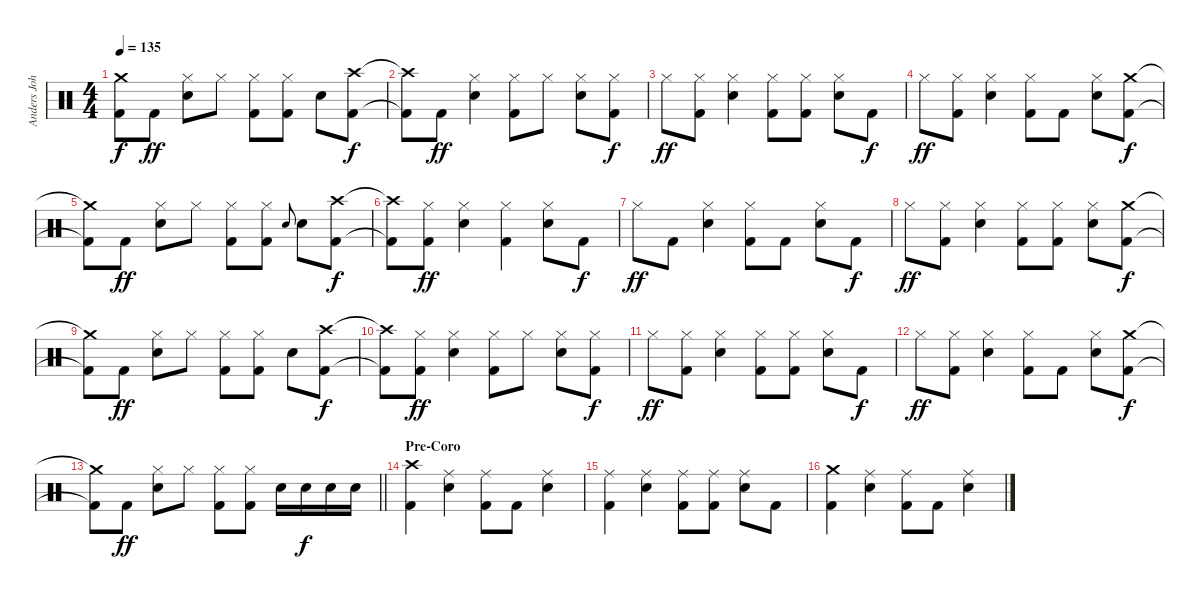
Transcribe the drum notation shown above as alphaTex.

\track ("Anders Johansson" "Anders Joh") {instrument percussion}
\staff {score}
\articulation defaults
\ts (4 4)
\tempo 135
\clef neutral
\ks c
("Crash medium (hit)"{t} "Kick (hit) 2"{t}).8{dy f} "Kick (hit) 2".8{dy ff} ("Hi-Hat (closed)" "Snare (hit) 2").8 "Hi-Hat (closed)".8 ("Hi-Hat (closed)" "Kick (hit) 2").8 ("Hi-Hat (closed)" "Kick (hit) 2").8 "Snare (hit) 2".8 ("Crash high (hit)" "Kick (hit) 2").8{dy f} |
("Crash high (hit)"{t} "Kick (hit) 2"{t}).8 "Kick (hit) 2".8{dy ff} ("Hi-Hat (closed)" "Snare (hit) 2").4 ("Hi-Hat (closed)" "Kick (hit) 2").8 "Hi-Hat (closed)".8 ("Hi-Hat (closed)" "Snare (hit) 2").8 ("Hi-Hat (closed)" "Kick (hit) 2").8{dy f} |
"Hi-Hat (closed)".8{dy ff} ("Hi-Hat (closed)" "Kick (hit) 2").8 ("Hi-Hat (closed)" "Snare (hit) 2").4 ("Hi-Hat (closed)" "Kick (hit) 2").8 ("Hi-Hat (closed)" "Kick (hit) 2").8 ("Hi-Hat (closed)" "Snare (hit) 2").8 "Kick (hit) 2".8{dy f} |
"Hi-Hat (closed)".8{dy ff} ("Hi-Hat (closed)" "Kick (hit) 2").8 ("Hi-Hat (closed)" "Snare (hit) 2").4 ("Hi-Hat (closed)" "Kick (hit) 2").8 "Kick (hit) 2".8 ("Hi-Hat (closed)" "Snare (hit) 2").8 ("Crash medium (hit)" "Kick (hit) 2").8{dy f} |
("Crash medium (hit)"{t} "Kick (hit) 2"{t}).8 "Kick (hit) 2".8{dy ff} ("Hi-Hat (closed)" "Snare (hit) 2").8 "Hi-Hat (closed)".8 ("Hi-Hat (closed)" "Kick (hit) 2").8 ("Hi-Hat (closed)" "Kick (hit) 2").8 "Snare (hit) 2".8{gr onbeat} "Snare (hit) 2".8 ("Crash high (hit)" "Kick (hit) 2").8{dy f} |
("Crash high (hit)"{t} "Kick (hit) 2"{t}).8 ("Hi-Hat (closed)" "Kick (hit) 2").8{dy ff} ("Hi-Hat (closed)" "Snare (hit) 2").4 ("Hi-Hat (closed)" "Kick (hit) 2").4 ("Hi-Hat (closed)" "Snare (hit) 2").8 "Kick (hit) 2".8{dy f} |
"Hi-Hat (closed)".8{dy ff} "Kick (hit) 2".8 ("Hi-Hat (closed)" "Snare (hit) 2").4 ("Hi-Hat (closed)" "Kick (hit) 2").8 "Kick (hit) 2".8 ("Hi-Hat (closed)" "Snare (hit) 2").8 "Kick (hit) 2".8{dy f} |
"Hi-Hat (closed)".8{dy ff} ("Hi-Hat (closed)" "Kick (hit) 2").8 ("Hi-Hat (closed)" "Snare (hit) 2").4 ("Hi-Hat (closed)" "Kick (hit) 2").8 ("Hi-Hat (closed)" "Kick (hit) 2").8 ("Hi-Hat (closed)" "Snare (hit) 2").8 ("Crash medium (hit)" "Kick (hit) 2").8{dy f} |
("Crash medium (hit)"{t} "Kick (hit) 2"{t}).8 "Kick (hit) 2".8{dy ff} ("Hi-Hat (closed)" "Snare (hit) 2").8 "Hi-Hat (closed)".8 ("Hi-Hat (closed)" "Kick (hit) 2").8 ("Hi-Hat (closed)" "Kick (hit) 2").8 "Snare (hit) 2".8 ("Crash high (hit)" "Kick (hit) 2").8{dy f} |
("Crash high (hit)"{t} "Kick (hit) 2"{t}).8 ("Hi-Hat (closed)" "Kick (hit) 2").8{dy ff} ("Hi-Hat (closed)" "Snare (hit) 2").4 ("Hi-Hat (closed)" "Kick (hit) 2").8 "Hi-Hat (closed)".8 ("Hi-Hat (closed)" "Snare (hit) 2").8 ("Hi-Hat (closed)" "Kick (hit) 2").8{dy f} |
"Hi-Hat (closed)".8{dy ff} ("Hi-Hat (closed)" "Kick (hit) 2").8 ("Hi-Hat (closed)" "Snare (hit) 2").4 ("Hi-Hat (closed)" "Kick (hit) 2").8 ("Hi-Hat (closed)" "Kick (hit) 2").8 ("Hi-Hat (closed)" "Snare (hit) 2").8 "Kick (hit) 2".8{dy f} |
"Hi-Hat (closed)".8{dy ff} ("Hi-Hat (closed)" "Kick (hit) 2").8 ("Hi-Hat (closed)" "Snare (hit) 2").4 ("Hi-Hat (closed)" "Kick (hit) 2").8 "Kick (hit) 2".8 ("Hi-Hat (closed)" "Snare (hit) 2").8 ("Crash medium (hit)" "Kick (hit) 2").8{dy f} |
\barLineRight lightlight
("Crash medium (hit)"{t} "Kick (hit) 2"{t}).8 "Kick (hit) 2".8{dy ff} ("Hi-Hat (closed)" "Snare (hit) 2").8 "Hi-Hat (closed)".8 ("Hi-Hat (closed)" "Kick (hit) 2").8 ("Hi-Hat (closed)" "Kick (hit) 2").8 "Snare (hit) 2".16 "Snare (hit) 2".16{dy f} "Snare (hit) 2".16 "Snare (hit) 2".16 |
\section ("" "Pre-Coro")
("Crash high (hit)" "Kick (hit) 2").4 ("Ride (middle)" "Snare (hit) 2").4 ("Ride (middle)" "Kick (hit) 2").8 "Kick (hit) 2".8 ("Ride (middle)" "Snare (hit) 2").4 |
("Ride (middle)" "Kick (hit) 2").4 ("Ride (middle)" "Snare (hit) 2").4 ("Ride (middle)" "Kick (hit) 2").8 ("Ride (middle)" "Kick (hit) 2").8 ("Ride (middle)" "Snare (hit) 2").8 "Kick (hit) 2".8 |
("Crash medium (hit)" "Kick (hit) 2").4 ("Ride (middle)" "Snare (hit) 2").4 ("Ride (middle)" "Kick (hit) 2").8 "Kick (hit) 2".8 ("Ride (middle)" "Snare (hit) 2").4
